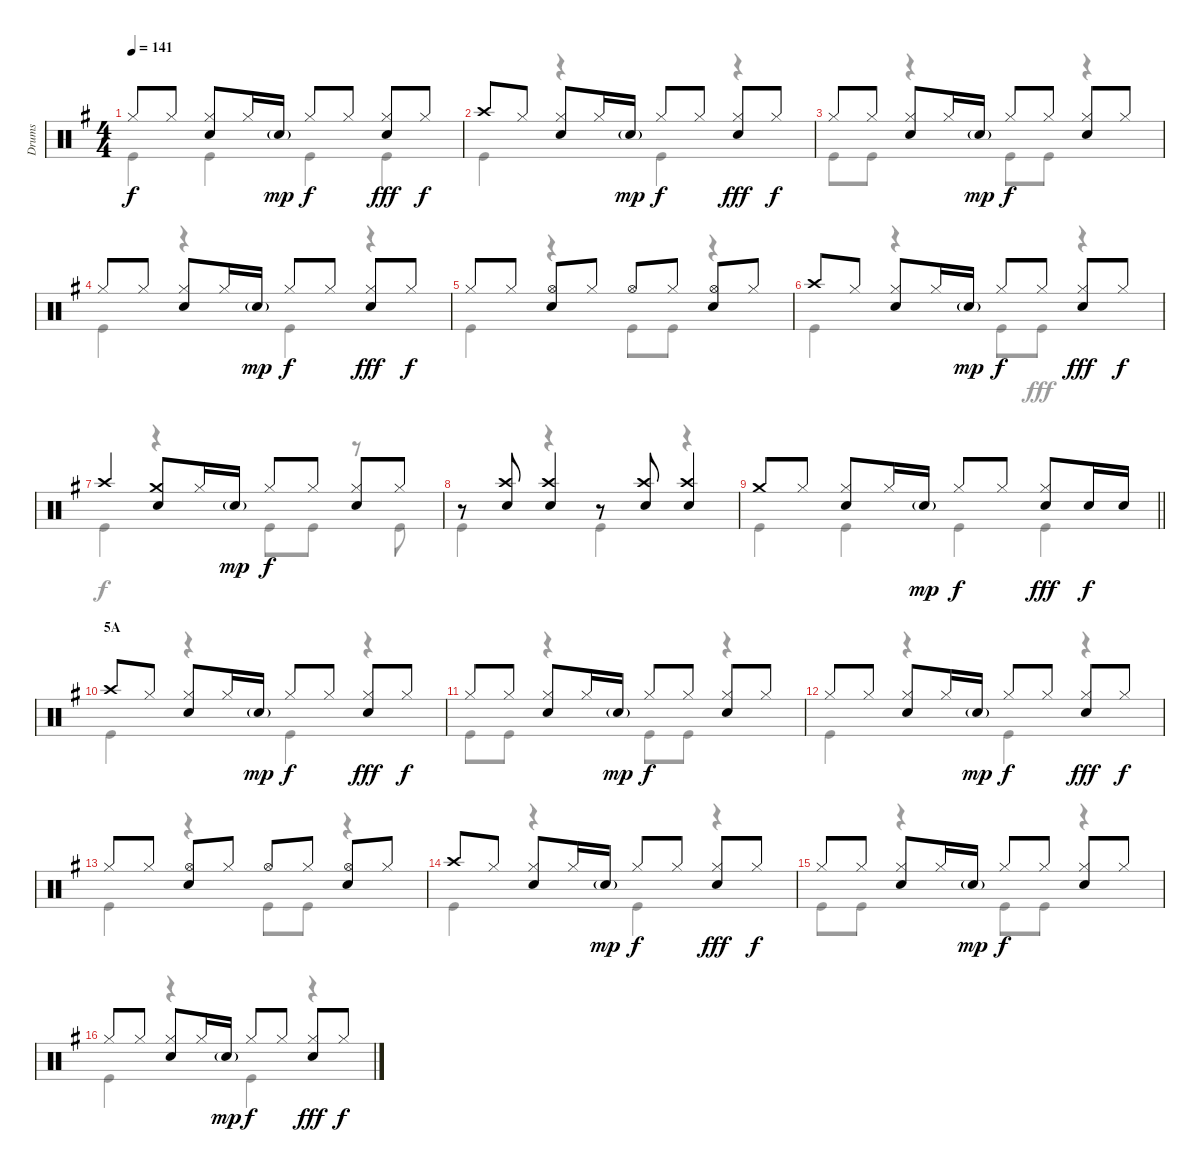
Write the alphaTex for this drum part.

\track ("Drums" "Drums") {instrument percussion}
\staff {score}
\articulation defaults
\voice
\ts (4 4)
\tempo 141
\clef neutral
\ks g "Hi-Hat (closed)".8{dy f} "Hi-Hat (closed)".8
("Hi-Hat (closed)" "Snare (hit) 2").8 "Hi-Hat (closed)".16 "Snare (hit) 2"{g}.16{dy mp} "Hi-Hat (closed)".8{dy f} "Hi-Hat (closed)".8 ("Hi-Hat (closed)" "Snare (hit) 2").8{dy fff} "Hi-Hat (closed)".8{dy f} |
"Crash high (hit)".8 "Hi-Hat (closed)".8 ("Hi-Hat (closed)" "Snare (hit) 2").8 "Hi-Hat (closed)".16 "Snare (hit) 2"{g}.16{dy mp} "Hi-Hat (closed)".8{dy f} "Hi-Hat (closed)".8 ("Hi-Hat (closed)" "Snare (hit) 2").8{dy fff} "Hi-Hat (closed)".8{dy f} |
"Hi-Hat (closed)".8 "Hi-Hat (closed)".8 ("Hi-Hat (closed)" "Snare (hit) 2").8 "Hi-Hat (closed)".16 "Snare (hit) 2"{g}.16{dy mp} "Hi-Hat (closed)".8{dy f} "Hi-Hat (closed)".8 ("Hi-Hat (closed)" "Snare (hit) 2").8 "Hi-Hat (closed)".8 |
"Hi-Hat (closed)".8 "Hi-Hat (closed)".8 ("Hi-Hat (closed)" "Snare (hit) 2").8 "Hi-Hat (closed)".16 "Snare (hit) 2"{g}.16{dy mp} "Hi-Hat (closed)".8{dy f} "Hi-Hat (closed)".8 ("Hi-Hat (closed)" "Snare (hit) 2").8{dy fff} "Hi-Hat (closed)".8{dy f} |
"Hi-Hat (closed)".8 "Hi-Hat (closed)".8 ("Hi-Hat (open)" "Snare (hit) 2").8 "Hi-Hat (closed)".8 "Hi-Hat (open)".8 "Hi-Hat (closed)".8 ("Hi-Hat (open)" "Snare (hit) 2").8 "Hi-Hat (closed)".8 |
"Crash high (hit)".8 "Hi-Hat (closed)".8 ("Hi-Hat (closed)" "Snare (hit) 2").8 "Hi-Hat (closed)".16 "Snare (hit) 2"{g}.16{dy mp} "Hi-Hat (closed)".8{dy f} "Hi-Hat (closed)".8 ("Hi-Hat (closed)" "Snare (hit) 2").8{dy fff} "Hi-Hat (closed)".8{dy f} |
"Crash high (hit)".4 ("Crash medium (hit)" "Snare (hit) 2").8 "Hi-Hat (closed)".16 "Snare (hit) 2"{g}.16{dy mp} "Hi-Hat (closed)".8{dy f} "Hi-Hat (closed)".8 ("Hi-Hat (closed)" "Snare (hit) 2").8 "Hi-Hat (closed)".8 |
r.8 ("Crash high (hit)" "Snare (hit) 2").8 ("Crash high (hit)" "Snare (hit) 2").4 r.8 ("Crash high (hit)" "Snare (hit) 2").8 ("Crash high (hit)" "Snare (hit) 2").4 |
\barLineRight lightlight "Crash medium (hit)".8 "Hi-Hat (closed)".8
("Hi-Hat (closed)" "Snare (hit) 2").8 "Hi-Hat (closed)".16 "Snare (hit) 2"{g}.16{dy mp} "Hi-Hat (closed)".8{dy f} "Hi-Hat (closed)".8 ("Hi-Hat (closed)" "Snare (hit) 2").8{dy fff} "Snare (hit) 2".16{dy f} "Snare (hit) 2".16 |
\section ("" "5A")
"Crash high (hit)".8 "Hi-Hat (closed)".8 ("Hi-Hat (closed)" "Snare (hit) 2").8 "Hi-Hat (closed)".16 "Snare (hit) 2"{g}.16{dy mp} "Hi-Hat (closed)".8{dy f} "Hi-Hat (closed)".8 ("Hi-Hat (closed)" "Snare (hit) 2").8{dy fff} "Hi-Hat (closed)".8{dy f} |
"Hi-Hat (closed)".8 "Hi-Hat (closed)".8 ("Hi-Hat (closed)" "Snare (hit) 2").8 "Hi-Hat (closed)".16 "Snare (hit) 2"{g}.16{dy mp} "Hi-Hat (closed)".8{dy f} "Hi-Hat (closed)".8 ("Hi-Hat (closed)" "Snare (hit) 2").8 "Hi-Hat (closed)".8 |
"Hi-Hat (closed)".8 "Hi-Hat (closed)".8 ("Hi-Hat (closed)" "Snare (hit) 2").8 "Hi-Hat (closed)".16 "Snare (hit) 2"{g}.16{dy mp} "Hi-Hat (closed)".8{dy f} "Hi-Hat (closed)".8 ("Hi-Hat (closed)" "Snare (hit) 2").8{dy fff} "Hi-Hat (closed)".8{dy f} |
"Hi-Hat (closed)".8 "Hi-Hat (closed)".8 ("Hi-Hat (open)" "Snare (hit) 2").8 "Hi-Hat (closed)".8 "Hi-Hat (open)".8 "Hi-Hat (closed)".8 ("Hi-Hat (open)" "Snare (hit) 2").8 "Hi-Hat (closed)".8 |
"Crash high (hit)".8 "Hi-Hat (closed)".8 ("Hi-Hat (closed)" "Snare (hit) 2").8 "Hi-Hat (closed)".16 "Snare (hit) 2"{g}.16{dy mp} "Hi-Hat (closed)".8{dy f} "Hi-Hat (closed)".8 ("Hi-Hat (closed)" "Snare (hit) 2").8{dy fff} "Hi-Hat (closed)".8{dy f} |
"Hi-Hat (closed)".8 "Hi-Hat (closed)".8 ("Hi-Hat (closed)" "Snare (hit) 2").8 "Hi-Hat (closed)".16 "Snare (hit) 2"{g}.16{dy mp} "Hi-Hat (closed)".8{dy f} "Hi-Hat (closed)".8 ("Hi-Hat (closed)" "Snare (hit) 2").8 "Hi-Hat (closed)".8 |
"Hi-Hat (closed)".8 "Hi-Hat (closed)".8 ("Hi-Hat (closed)" "Snare (hit) 2").8 "Hi-Hat (closed)".16 "Snare (hit) 2"{g}.16{dy mp} "Hi-Hat (closed)".8{dy f} "Hi-Hat (closed)".8 ("Hi-Hat (closed)" "Snare (hit) 2").8{dy fff} "Hi-Hat (closed)".8{dy f}
\voice
\clef neutral
\ottava regular
\simile none
\ks g "Kick (hit)".4{dy f} "Kick (hit)".4 "Kick (hit)".4 "Kick (hit)".4
|
"Kick (hit)".4 r.4 "Kick (hit)".4 r.4 |
"Kick (hit)".8 "Kick (hit)".8 r.4 "Kick (hit)".8 "Kick (hit)".8 r.4 |
"Kick (hit)".4 r.4 "Kick (hit)".4 r.4 |
"Kick (hit)".4 r.4 "Kick (hit)".8 "Kick (hit)".8 r.4 |
"Kick (hit)".4 r.4 "Kick (hit)".8 "Kick (hit)".8{dy fff} r.4 |
"Kick (hit)".4{dy f} r.4 "Kick (hit)".8 "Kick (hit)".8 r.8 "Kick (hit)".8 |
"Kick (hit)".4 r.4 "Kick (hit)".4 r.4 |
\barLineRight lightlight "Kick (hit)".4 "Kick (hit)".4 "Kick (hit)".4 "Kick (hit)".4
|
"Kick (hit)".4 r.4 "Kick (hit)".4 r.4 |
"Kick (hit)".8 "Kick (hit)".8 r.4 "Kick (hit)".8 "Kick (hit)".8 r.4 |
"Kick (hit)".4 r.4 "Kick (hit)".4 r.4 |
"Kick (hit)".4 r.4 "Kick (hit)".8 "Kick (hit)".8 r.4 |
"Kick (hit)".4 r.4 "Kick (hit)".4 r.4 |
"Kick (hit)".8 "Kick (hit)".8 r.4 "Kick (hit)".8 "Kick (hit)".8 r.4 |
"Kick (hit)".4 r.4 "Kick (hit)".4 r.4
